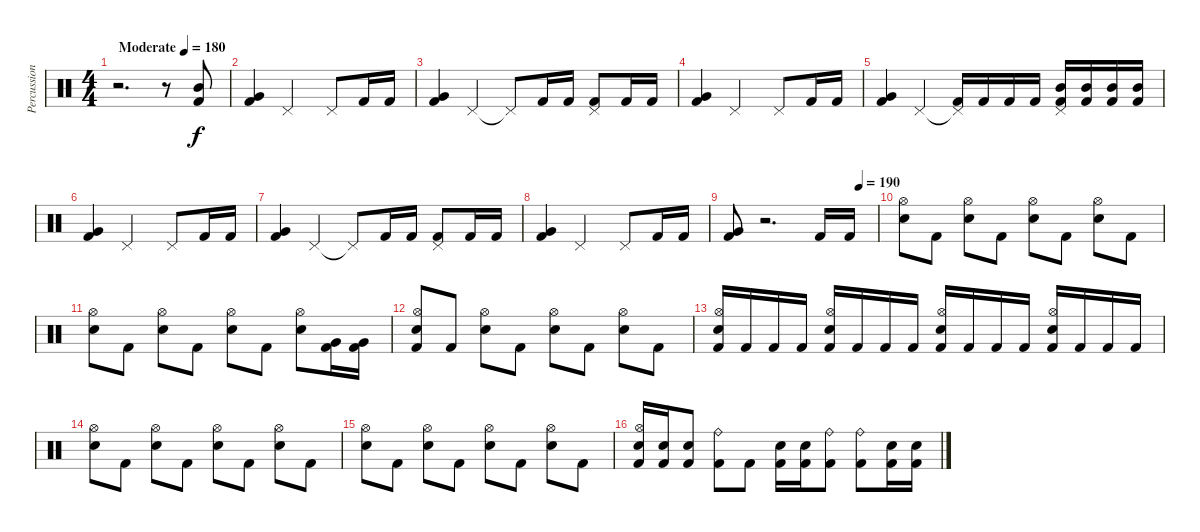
\track ("Percussion" "Percussion") {instrument percussion}
\staff {score}
\articulation defaults
\ts (4 4)
\tempo (180 "Moderate")
\clef neutral
\ks c
r.2{d dy f} r.8 ("Mid Tom (hit)" "Kick (hit) 2").8 |
("Very Low Tom (hit)" "Kick (hit) 2").4 "Pedal Hi-Hat (hit)".2 "Pedal Hi-Hat (hit)".8 "Kick (hit) 2".16 "Kick (hit) 2".16 |
("Very Low Tom (hit)" "Kick (hit) 2").4 "Pedal Hi-Hat (hit)".4 "Pedal Hi-Hat (hit)"{t}.8 "Kick (hit) 2".16 "Kick (hit) 2".16 ("Pedal Hi-Hat (hit)" "Kick (hit) 2").8 "Kick (hit) 2".16 "Kick (hit) 2".16 |
("Very Low Tom (hit)" "Kick (hit) 2").4 "Pedal Hi-Hat (hit)".2 "Pedal Hi-Hat (hit)".8 "Kick (hit) 2".16 "Kick (hit) 2".16 |
("Very Low Tom (hit)" "Kick (hit) 2").4 "Pedal Hi-Hat (hit)".4 ("Pedal Hi-Hat (hit)"{t} "Kick (hit) 2").16 "Kick (hit) 2".16 "Kick (hit) 2".16 "Kick (hit) 2".16 ("Pedal Hi-Hat (hit)" "Mid Tom (hit)" "Kick (hit) 2").16 ("Mid Tom (hit)" "Kick (hit) 2").16 ("Mid Tom (hit)" "Kick (hit) 2").16 ("Mid Tom (hit)" "Kick (hit) 2").16 |
("Very Low Tom (hit)" "Kick (hit) 2").4 "Pedal Hi-Hat (hit)".2 "Pedal Hi-Hat (hit)".8 "Kick (hit) 2".16 "Kick (hit) 2".16 |
("Very Low Tom (hit)" "Kick (hit) 2").4 "Pedal Hi-Hat (hit)".4 "Pedal Hi-Hat (hit)"{t}.8 "Kick (hit) 2".16 "Kick (hit) 2".16 ("Pedal Hi-Hat (hit)" "Kick (hit) 2").8 "Kick (hit) 2".16 "Kick (hit) 2".16 |
("Very Low Tom (hit)" "Kick (hit) 2").4 "Pedal Hi-Hat (hit)".2 "Pedal Hi-Hat (hit)".8 "Kick (hit) 2".16 "Kick (hit) 2".16 |
\tempo (190 0.875)
("Very Low Tom (hit)" "Kick (hit) 2").8 r.2{d} "Kick (hit) 2".16 "Kick (hit) 2".16 |
("Hi-Hat (open)" "Electric Snare (hit)").8 "Kick (hit) 2".8 ("Hi-Hat (open)" "Electric Snare (hit)").8 "Kick (hit) 2".8 ("Hi-Hat (open)" "Electric Snare (hit)").8 "Kick (hit) 2".8 ("Hi-Hat (open)" "Electric Snare (hit)").8 "Kick (hit) 2".8 |
("Hi-Hat (open)" "Electric Snare (hit)").8 "Kick (hit) 2".8 ("Hi-Hat (open)" "Electric Snare (hit)").8 "Kick (hit) 2".8 ("Hi-Hat (open)" "Electric Snare (hit)").8 "Kick (hit) 2".8 ("Hi-Hat (open)" "Electric Snare (hit)").8 ("Very Low Tom (hit)" "Kick (hit) 2").16 ("Very Low Tom (hit)" "Kick (hit) 2").16 |
("Hi-Hat (open)" "Electric Snare (hit)" "Kick (hit) 2").8 "Kick (hit) 2".8 ("Hi-Hat (open)" "Electric Snare (hit)").8 "Kick (hit) 2".8 ("Hi-Hat (open)" "Electric Snare (hit)").8 "Kick (hit) 2".8 ("Hi-Hat (open)" "Electric Snare (hit)").8 "Kick (hit) 2".8 |
("Hi-Hat (open)" "Electric Snare (hit)" "Kick (hit) 2").16 "Kick (hit) 2".16 "Kick (hit) 2".16 "Kick (hit) 2".16 ("Hi-Hat (open)" "Electric Snare (hit)" "Kick (hit) 2").16 "Kick (hit) 2".16 "Kick (hit) 2".16 "Kick (hit) 2".16 ("Hi-Hat (open)" "Electric Snare (hit)" "Kick (hit) 2").16 "Kick (hit) 2".16 "Kick (hit) 2".16 "Kick (hit) 2".16 ("Hi-Hat (open)" "Electric Snare (hit)" "Kick (hit) 2").16 "Kick (hit) 2".16 "Kick (hit) 2".16 "Kick (hit) 2".16 |
("Hi-Hat (open)" "Electric Snare (hit)").8 "Kick (hit) 2".8 ("Hi-Hat (open)" "Electric Snare (hit)").8 "Kick (hit) 2".8 ("Hi-Hat (open)" "Electric Snare (hit)").8 "Kick (hit) 2".8 ("Hi-Hat (open)" "Electric Snare (hit)").8 "Kick (hit) 2".8 |
("Hi-Hat (open)" "Electric Snare (hit)").8 "Kick (hit) 2".8 ("Hi-Hat (open)" "Electric Snare (hit)").8 "Kick (hit) 2".8 ("Hi-Hat (open)" "Electric Snare (hit)").8 "Kick (hit) 2".8 ("Hi-Hat (open)" "Electric Snare (hit)").8 "Kick (hit) 2".8 |
("Hi-Hat (open)" "Electric Snare (hit)" "Kick (hit) 2").16 ("Electric Snare (hit)" "Kick (hit) 2").16 ("Electric Snare (hit)" "Kick (hit) 2").8 ("Ride (bell)" "Kick (hit) 2").8 "Kick (hit) 2".8 ("Electric Snare (hit)" "Kick (hit) 2").16 ("Electric Snare (hit)" "Kick (hit) 2").16 ("Ride (bell)" "Kick (hit) 2").8 ("Ride (bell)" "Kick (hit) 2").8 ("Electric Snare (hit)" "Kick (hit) 2").16 ("Electric Snare (hit)" "Kick (hit) 2").16
